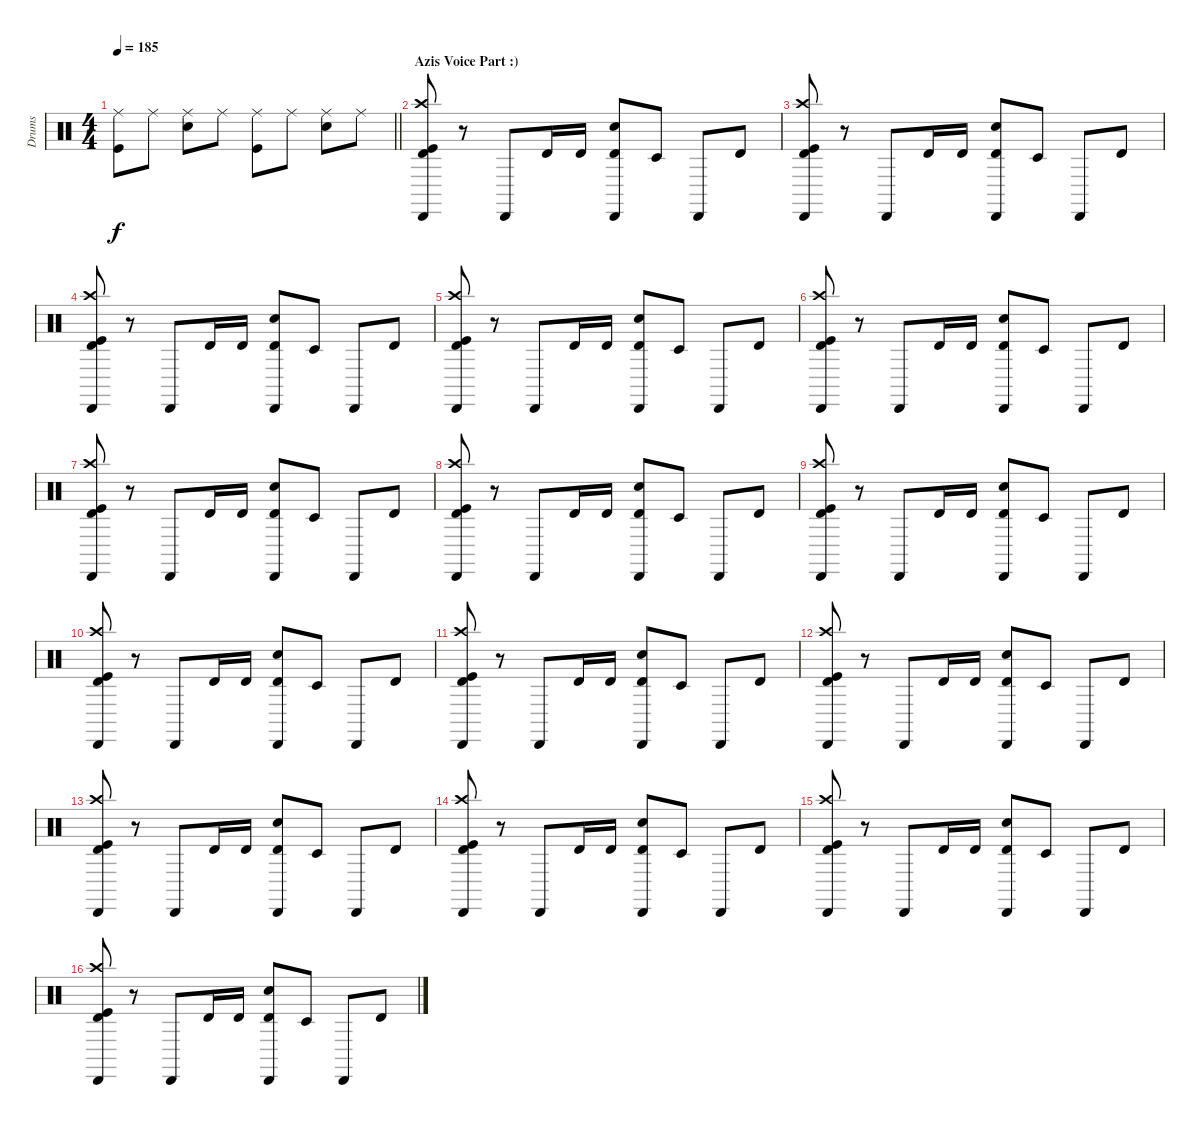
\track ("Drums" "Drums") {instrument percussion}
\staff {score}
\articulation defaults
\ts (4 4)
\tempo 185
\clef neutral
\barLineRight lightlight
\ks c
("Ride (middle)" "Kick (hit)").8{dy f} "Ride (middle)".8 ("Ride (middle)" "Snare (hit) 2").8 "Ride (middle)".8 ("Ride (middle)" "Kick (hit)").8 "Ride (middle)".8 ("Ride (middle)" "Snare (hit) 2").8 "Ride (middle)".8 |
\section ("" "Azis Voice Part :)")
("Crash high (hit)" "Kick (hit)" "Timbale high (hit)" "Cabasa (hit)").8 r.8 "Cabasa (hit)".8 "Timbale high (hit)".16 "Timbale high (hit)".16 ("Snare (hit) 2" "Timbale high (hit)" "Cabasa (hit)").8 "Timbale low (hit)".8 "Cabasa (hit)".8 "Timbale high (hit)".8 |
("Crash high (hit)" "Kick (hit)" "Timbale high (hit)" "Cabasa (hit)").8 r.8 "Cabasa (hit)".8 "Timbale high (hit)".16 "Timbale high (hit)".16 ("Snare (hit) 2" "Timbale high (hit)" "Cabasa (hit)").8 "Timbale low (hit)".8 "Cabasa (hit)".8 "Timbale high (hit)".8 |
("Crash high (hit)" "Kick (hit)" "Timbale high (hit)" "Cabasa (hit)").8 r.8 "Cabasa (hit)".8 "Timbale high (hit)".16 "Timbale high (hit)".16 ("Snare (hit) 2" "Timbale high (hit)" "Cabasa (hit)").8 "Timbale low (hit)".8 "Cabasa (hit)".8 "Timbale high (hit)".8 |
("Crash high (hit)" "Kick (hit)" "Timbale high (hit)" "Cabasa (hit)").8 r.8 "Cabasa (hit)".8 "Timbale high (hit)".16 "Timbale high (hit)".16 ("Snare (hit) 2" "Timbale high (hit)" "Cabasa (hit)").8 "Timbale low (hit)".8 "Cabasa (hit)".8 "Timbale high (hit)".8 |
("Crash high (hit)" "Kick (hit)" "Timbale high (hit)" "Cabasa (hit)").8 r.8 "Cabasa (hit)".8 "Timbale high (hit)".16 "Timbale high (hit)".16 ("Snare (hit) 2" "Timbale high (hit)" "Cabasa (hit)").8 "Timbale low (hit)".8 "Cabasa (hit)".8 "Timbale high (hit)".8 |
("Crash high (hit)" "Kick (hit)" "Timbale high (hit)" "Cabasa (hit)").8 r.8 "Cabasa (hit)".8 "Timbale high (hit)".16 "Timbale high (hit)".16 ("Snare (hit) 2" "Timbale high (hit)" "Cabasa (hit)").8 "Timbale low (hit)".8 "Cabasa (hit)".8 "Timbale high (hit)".8 |
("Crash high (hit)" "Kick (hit)" "Timbale high (hit)" "Cabasa (hit)").8 r.8 "Cabasa (hit)".8 "Timbale high (hit)".16 "Timbale high (hit)".16 ("Snare (hit) 2" "Timbale high (hit)" "Cabasa (hit)").8 "Timbale low (hit)".8 "Cabasa (hit)".8 "Timbale high (hit)".8 |
("Crash high (hit)" "Kick (hit)" "Timbale high (hit)" "Cabasa (hit)").8 r.8 "Cabasa (hit)".8 "Timbale high (hit)".16 "Timbale high (hit)".16 ("Snare (hit) 2" "Timbale high (hit)" "Cabasa (hit)").8 "Timbale low (hit)".8 "Cabasa (hit)".8 "Timbale high (hit)".8 |
("Crash high (hit)" "Kick (hit)" "Timbale high (hit)" "Cabasa (hit)").8 r.8 "Cabasa (hit)".8 "Timbale high (hit)".16 "Timbale high (hit)".16 ("Snare (hit) 2" "Timbale high (hit)" "Cabasa (hit)").8 "Timbale low (hit)".8 "Cabasa (hit)".8 "Timbale high (hit)".8 |
("Crash high (hit)" "Kick (hit)" "Timbale high (hit)" "Cabasa (hit)").8 r.8 "Cabasa (hit)".8 "Timbale high (hit)".16 "Timbale high (hit)".16 ("Snare (hit) 2" "Timbale high (hit)" "Cabasa (hit)").8 "Timbale low (hit)".8 "Cabasa (hit)".8 "Timbale high (hit)".8 |
("Crash high (hit)" "Kick (hit)" "Timbale high (hit)" "Cabasa (hit)").8 r.8 "Cabasa (hit)".8 "Timbale high (hit)".16 "Timbale high (hit)".16 ("Snare (hit) 2" "Timbale high (hit)" "Cabasa (hit)").8 "Timbale low (hit)".8 "Cabasa (hit)".8 "Timbale high (hit)".8 |
("Crash high (hit)" "Kick (hit)" "Timbale high (hit)" "Cabasa (hit)").8 r.8 "Cabasa (hit)".8 "Timbale high (hit)".16 "Timbale high (hit)".16 ("Snare (hit) 2" "Timbale high (hit)" "Cabasa (hit)").8 "Timbale low (hit)".8 "Cabasa (hit)".8 "Timbale high (hit)".8 |
("Crash high (hit)" "Kick (hit)" "Timbale high (hit)" "Cabasa (hit)").8 r.8 "Cabasa (hit)".8 "Timbale high (hit)".16 "Timbale high (hit)".16 ("Snare (hit) 2" "Timbale high (hit)" "Cabasa (hit)").8 "Timbale low (hit)".8 "Cabasa (hit)".8 "Timbale high (hit)".8 |
("Crash high (hit)" "Kick (hit)" "Timbale high (hit)" "Cabasa (hit)").8 r.8 "Cabasa (hit)".8 "Timbale high (hit)".16 "Timbale high (hit)".16 ("Snare (hit) 2" "Timbale high (hit)" "Cabasa (hit)").8 "Timbale low (hit)".8 "Cabasa (hit)".8 "Timbale high (hit)".8 |
("Crash high (hit)" "Kick (hit)" "Timbale high (hit)" "Cabasa (hit)").8 r.8 "Cabasa (hit)".8 "Timbale high (hit)".16 "Timbale high (hit)".16 ("Snare (hit) 2" "Timbale high (hit)" "Cabasa (hit)").8 "Timbale low (hit)".8 "Cabasa (hit)".8 "Timbale high (hit)".8
